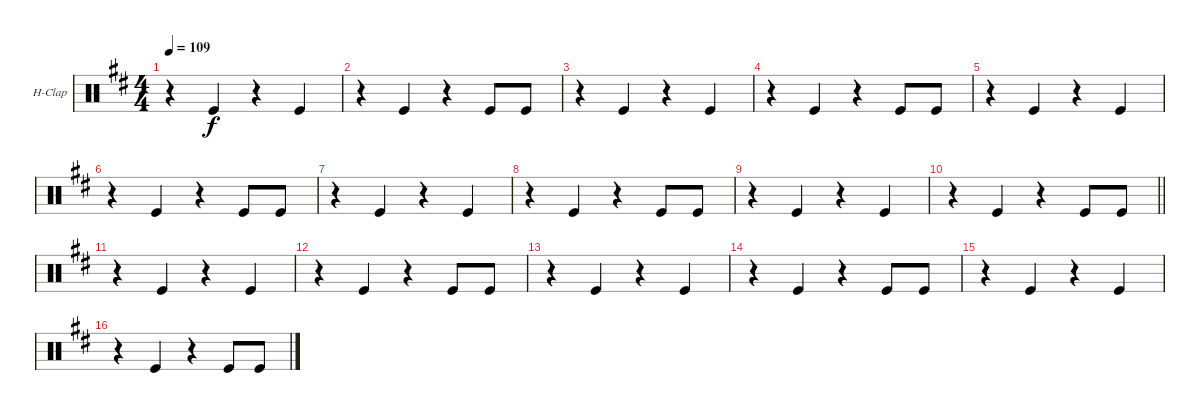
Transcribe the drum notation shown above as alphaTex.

\bracketExtendMode groupsimilarinstruments
\firstSystemTrackNameOrientation horizontal
\otherSystemsTrackNameOrientation horizontal
\track ("Hand Clap" "H-Clap") {instrument percussion}
\staff {score}
\articulation defaults
\ts (4 4)
\tempo 109
\clef neutral
\scale
0.333333
\ks d
r.4{dy f} "Kick (hit)".4 r.4 "Kick (hit)".4 |
\scale
0.333333 r.4 "Kick (hit)".4 r.4 "Kick (hit)".8 "Kick (hit)".8 |
\scale
0.333333 r.4 "Kick (hit)".4 r.4 "Kick (hit)".4 |
\scale
0.333333 r.4 "Kick (hit)".4 r.4 "Kick (hit)".8 "Kick (hit)".8 |
\scale
0.333333 r.4 "Kick (hit)".4 r.4 "Kick (hit)".4 |
\scale
0.333333 r.4 "Kick (hit)".4 r.4 "Kick (hit)".8 "Kick (hit)".8 |
\scale
0.333333 r.4 "Kick (hit)".4 r.4 "Kick (hit)".4 |
\scale
0.333333 r.4 "Kick (hit)".4 r.4 "Kick (hit)".8 "Kick (hit)".8 |
\scale
0.333333 r.4 "Kick (hit)".4 r.4 "Kick (hit)".4 |
\scale
0.333333
\barLineRight lightlight
r.4 "Kick (hit)".4 r.4 "Kick (hit)".8 "Kick (hit)".8 |
\scale
0.333333 r.4 "Kick (hit)".4 r.4 "Kick (hit)".4 |
\scale
0.333333 r.4 "Kick (hit)".4 r.4 "Kick (hit)".8 "Kick (hit)".8 |
\scale
0.333333 r.4 "Kick (hit)".4 r.4 "Kick (hit)".4 |
\scale
0.333333 r.4 "Kick (hit)".4 r.4 "Kick (hit)".8 "Kick (hit)".8 |
\scale
0.333333 r.4 "Kick (hit)".4 r.4 "Kick (hit)".4 |
\scale
0.333333 r.4 "Kick (hit)".4 r.4 "Kick (hit)".8 "Kick (hit)".8
